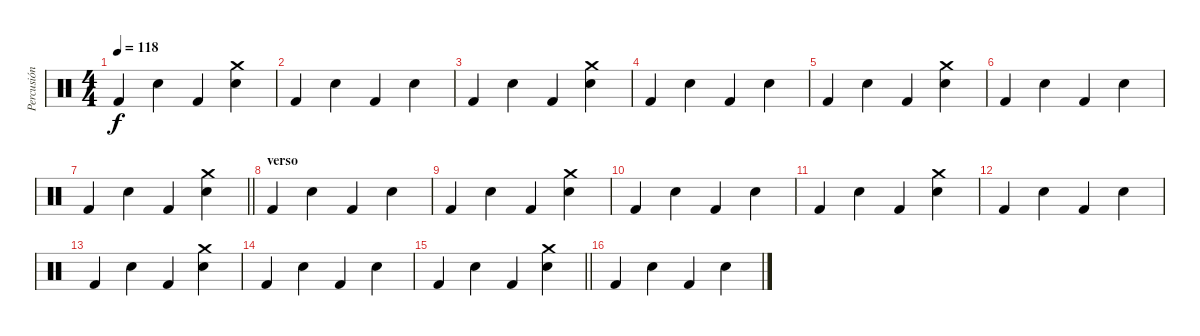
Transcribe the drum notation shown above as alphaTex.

\track ("Percusión" "Percusión") {instrument percussion}
\staff {score}
\articulation defaults
\ts (4 4)
\tempo 118
\clef neutral
\ks c "Kick (hit) 2".4{dy f} "Hand Clap (hit)".4 "Kick (hit) 2".4
("Hand Clap (hit)" "Crash medium (hit)").4 |
"Kick (hit) 2".4 "Hand Clap (hit)".4 "Kick (hit) 2".4 "Hand Clap (hit)".4 |
"Kick (hit) 2".4 "Hand Clap (hit)".4 "Kick (hit) 2".4 ("Hand Clap (hit)" "Crash medium (hit)").4 |
"Kick (hit) 2".4 "Hand Clap (hit)".4 "Kick (hit) 2".4 "Hand Clap (hit)".4 |
"Kick (hit) 2".4 "Hand Clap (hit)".4 "Kick (hit) 2".4 ("Hand Clap (hit)" "Crash medium (hit)").4 |
"Kick (hit) 2".4 "Hand Clap (hit)".4 "Kick (hit) 2".4 "Hand Clap (hit)".4 |
\barLineRight lightlight "Kick (hit) 2".4 "Hand Clap (hit)".4 "Kick (hit) 2".4
("Hand Clap (hit)" "Crash medium (hit)").4 |
\section ("" "verso")
"Kick (hit) 2".4 "Hand Clap (hit)".4 "Kick (hit) 2".4 "Hand Clap (hit)".4 |
"Kick (hit) 2".4 "Hand Clap (hit)".4 "Kick (hit) 2".4 ("Hand Clap (hit)" "Crash medium (hit)").4 |
"Kick (hit) 2".4 "Hand Clap (hit)".4 "Kick (hit) 2".4 "Hand Clap (hit)".4 |
"Kick (hit) 2".4 "Hand Clap (hit)".4 "Kick (hit) 2".4 ("Hand Clap (hit)" "Crash medium (hit)").4 |
"Kick (hit) 2".4 "Hand Clap (hit)".4 "Kick (hit) 2".4 "Hand Clap (hit)".4 |
"Kick (hit) 2".4 "Hand Clap (hit)".4 "Kick (hit) 2".4 ("Hand Clap (hit)" "Crash medium (hit)").4 |
"Kick (hit) 2".4 "Hand Clap (hit)".4 "Kick (hit) 2".4 "Hand Clap (hit)".4 |
\barLineRight lightlight "Kick (hit) 2".4 "Hand Clap (hit)".4 "Kick (hit) 2".4
("Hand Clap (hit)" "Crash medium (hit)").4 |
"Kick (hit) 2".4 "Hand Clap (hit)".4 "Kick (hit) 2".4 "Hand Clap (hit)".4
